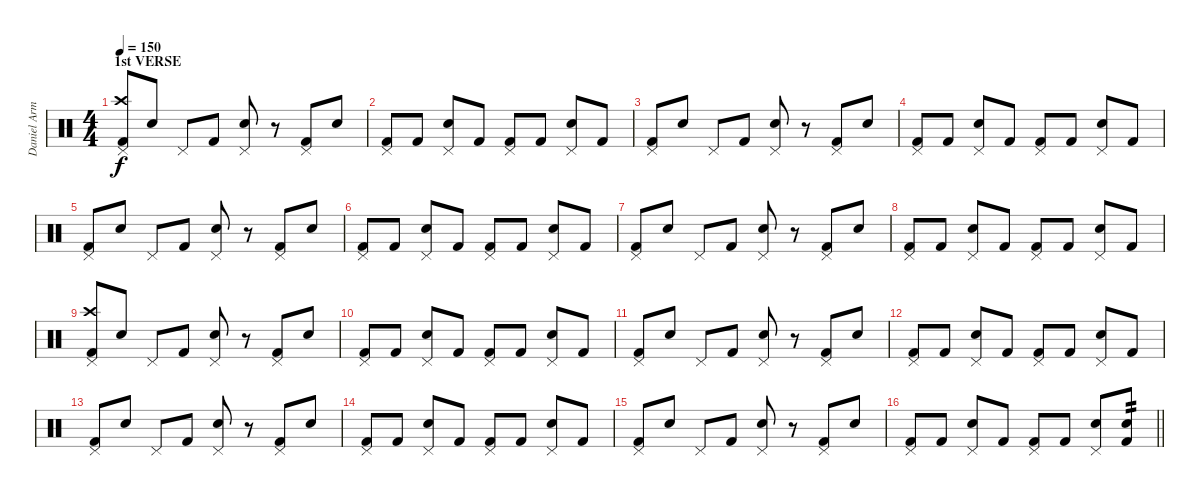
\track ("Daniel Armstrong" "Daniel Arm") {instrument percussion}
\staff {score}
\articulation defaults
\ts (4 4)
\section ("" "1st VERSE")
\tempo 150
\clef neutral
\ks c
("Pedal Hi-Hat (hit)" "Crash high (hit)" "Kick (hit) 2").8{dy f} "Electric Snare (hit)".8 "Pedal Hi-Hat (hit)".8 "Kick (hit) 2".8 ("Pedal Hi-Hat (hit)" "Electric Snare (hit)").8 r.8 ("Pedal Hi-Hat (hit)" "Kick (hit) 2").8 "Electric Snare (hit)".8 |
("Pedal Hi-Hat (hit)" "Kick (hit) 2").8 "Kick (hit) 2".8 ("Pedal Hi-Hat (hit)" "Electric Snare (hit)").8 "Kick (hit) 2".8 ("Pedal Hi-Hat (hit)" "Kick (hit) 2").8 "Kick (hit) 2".8 ("Pedal Hi-Hat (hit)" "Electric Snare (hit)").8 "Kick (hit) 2".8 |
("Pedal Hi-Hat (hit)" "Kick (hit) 2").8 "Electric Snare (hit)".8 "Pedal Hi-Hat (hit)".8 "Kick (hit) 2".8 ("Pedal Hi-Hat (hit)" "Electric Snare (hit)").8 r.8 ("Pedal Hi-Hat (hit)" "Kick (hit) 2").8 "Electric Snare (hit)".8 |
("Pedal Hi-Hat (hit)" "Kick (hit) 2").8 "Kick (hit) 2".8 ("Pedal Hi-Hat (hit)" "Electric Snare (hit)").8 "Kick (hit) 2".8 ("Pedal Hi-Hat (hit)" "Kick (hit) 2").8 "Kick (hit) 2".8 ("Pedal Hi-Hat (hit)" "Electric Snare (hit)").8 "Kick (hit) 2".8 |
("Pedal Hi-Hat (hit)" "Kick (hit) 2").8 "Electric Snare (hit)".8 "Pedal Hi-Hat (hit)".8 "Kick (hit) 2".8 ("Pedal Hi-Hat (hit)" "Electric Snare (hit)").8 r.8 ("Pedal Hi-Hat (hit)" "Kick (hit) 2").8 "Electric Snare (hit)".8 |
("Pedal Hi-Hat (hit)" "Kick (hit) 2").8 "Kick (hit) 2".8 ("Pedal Hi-Hat (hit)" "Electric Snare (hit)").8 "Kick (hit) 2".8 ("Pedal Hi-Hat (hit)" "Kick (hit) 2").8 "Kick (hit) 2".8 ("Pedal Hi-Hat (hit)" "Electric Snare (hit)").8 "Kick (hit) 2".8 |
("Pedal Hi-Hat (hit)" "Kick (hit) 2").8 "Electric Snare (hit)".8 "Pedal Hi-Hat (hit)".8 "Kick (hit) 2".8 ("Pedal Hi-Hat (hit)" "Electric Snare (hit)").8 r.8 ("Pedal Hi-Hat (hit)" "Kick (hit) 2").8 "Electric Snare (hit)".8 |
("Pedal Hi-Hat (hit)" "Kick (hit) 2").8 "Kick (hit) 2".8 ("Pedal Hi-Hat (hit)" "Electric Snare (hit)").8 "Kick (hit) 2".8 ("Pedal Hi-Hat (hit)" "Kick (hit) 2").8 "Kick (hit) 2".8 ("Pedal Hi-Hat (hit)" "Electric Snare (hit)").8 "Kick (hit) 2".8 |
("Pedal Hi-Hat (hit)" "Crash high (hit)" "Kick (hit) 2").8 "Electric Snare (hit)".8 "Pedal Hi-Hat (hit)".8 "Kick (hit) 2".8 ("Pedal Hi-Hat (hit)" "Electric Snare (hit)").8 r.8 ("Pedal Hi-Hat (hit)" "Kick (hit) 2").8 "Electric Snare (hit)".8 |
("Pedal Hi-Hat (hit)" "Kick (hit) 2").8 "Kick (hit) 2".8 ("Pedal Hi-Hat (hit)" "Electric Snare (hit)").8 "Kick (hit) 2".8 ("Pedal Hi-Hat (hit)" "Kick (hit) 2").8 "Kick (hit) 2".8 ("Pedal Hi-Hat (hit)" "Electric Snare (hit)").8 "Kick (hit) 2".8 |
("Pedal Hi-Hat (hit)" "Kick (hit) 2").8 "Electric Snare (hit)".8 "Pedal Hi-Hat (hit)".8 "Kick (hit) 2".8 ("Pedal Hi-Hat (hit)" "Electric Snare (hit)").8 r.8 ("Pedal Hi-Hat (hit)" "Kick (hit) 2").8 "Electric Snare (hit)".8 |
("Pedal Hi-Hat (hit)" "Kick (hit) 2").8 "Kick (hit) 2".8 ("Pedal Hi-Hat (hit)" "Electric Snare (hit)").8 "Kick (hit) 2".8 ("Pedal Hi-Hat (hit)" "Kick (hit) 2").8 "Kick (hit) 2".8 ("Pedal Hi-Hat (hit)" "Electric Snare (hit)").8 "Kick (hit) 2".8 |
("Pedal Hi-Hat (hit)" "Kick (hit) 2").8 "Electric Snare (hit)".8 "Pedal Hi-Hat (hit)".8 "Kick (hit) 2".8 ("Pedal Hi-Hat (hit)" "Electric Snare (hit)").8 r.8 ("Pedal Hi-Hat (hit)" "Kick (hit) 2").8 "Electric Snare (hit)".8 |
("Pedal Hi-Hat (hit)" "Kick (hit) 2").8 "Kick (hit) 2".8 ("Pedal Hi-Hat (hit)" "Electric Snare (hit)").8 "Kick (hit) 2".8 ("Pedal Hi-Hat (hit)" "Kick (hit) 2").8 "Kick (hit) 2".8 ("Pedal Hi-Hat (hit)" "Electric Snare (hit)").8 "Kick (hit) 2".8 |
("Pedal Hi-Hat (hit)" "Kick (hit) 2").8 "Electric Snare (hit)".8 "Pedal Hi-Hat (hit)".8 "Kick (hit) 2".8 ("Pedal Hi-Hat (hit)" "Electric Snare (hit)").8 r.8 ("Pedal Hi-Hat (hit)" "Kick (hit) 2").8 "Electric Snare (hit)".8 |
\barLineRight lightlight
("Pedal Hi-Hat (hit)" "Kick (hit) 2").8 "Kick (hit) 2".8 ("Pedal Hi-Hat (hit)" "Electric Snare (hit)").8 "Kick (hit) 2".8 ("Pedal Hi-Hat (hit)" "Kick (hit) 2").8 "Kick (hit) 2".8 ("Pedal Hi-Hat (hit)" "Electric Snare (hit)").8 ("Electric Snare (hit)" "Kick (hit) 2").8{tp 2}
